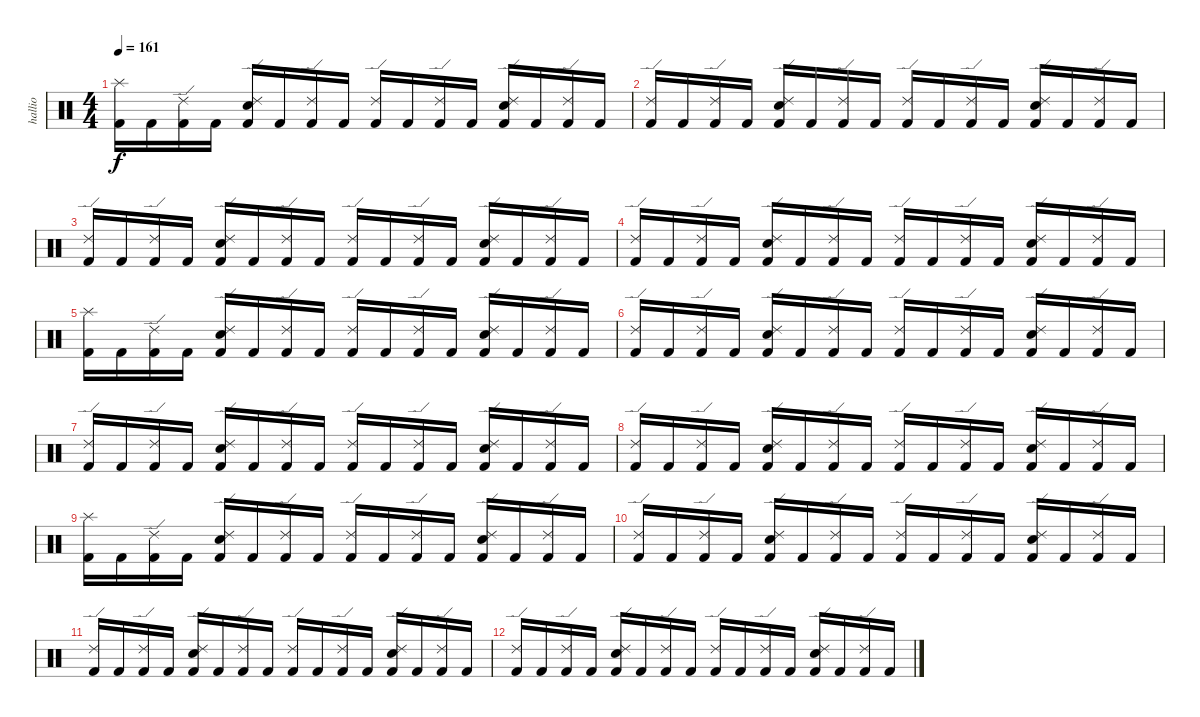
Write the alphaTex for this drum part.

\track ("hallio" "hallio") {instrument percussion}
\staff {score}
\articulation defaults
\ts (4 4)
\tempo 161
\clef neutral
\ks c
("Kick (hit) 2" "Splash (hit)").16{dy f} "Kick (hit) 2".16 ("Kick (hit) 2" "Ride (edge) 2").16 "Kick (hit) 2".16 ("Kick (hit) 2" "Snare (hit) 2" "Ride (edge) 2").16 "Kick (hit) 2".16 ("Kick (hit) 2" "Ride (edge) 2").16 "Kick (hit) 2".16 ("Kick (hit) 2" "Ride (edge) 2").16 "Kick (hit) 2".16 ("Kick (hit) 2" "Ride (edge) 2").16 "Kick (hit) 2".16 ("Kick (hit) 2" "Snare (hit) 2" "Ride (edge) 2").16 "Kick (hit) 2".16 ("Kick (hit) 2" "Ride (edge) 2").16 "Kick (hit) 2".16 |
("Kick (hit) 2" "Ride (edge) 2").16 "Kick (hit) 2".16 ("Kick (hit) 2" "Ride (edge) 2").16 "Kick (hit) 2".16 ("Kick (hit) 2" "Snare (hit) 2" "Ride (edge) 2").16 "Kick (hit) 2".16 ("Kick (hit) 2" "Ride (edge) 2").16 "Kick (hit) 2".16 ("Kick (hit) 2" "Ride (edge) 2").16 "Kick (hit) 2".16 ("Kick (hit) 2" "Ride (edge) 2").16 "Kick (hit) 2".16 ("Kick (hit) 2" "Snare (hit) 2" "Ride (edge) 2").16 "Kick (hit) 2".16 ("Kick (hit) 2" "Ride (edge) 2").16 "Kick (hit) 2".16 |
("Kick (hit) 2" "Ride (edge) 2").16 "Kick (hit) 2".16 ("Kick (hit) 2" "Ride (edge) 2").16 "Kick (hit) 2".16 ("Kick (hit) 2" "Snare (hit) 2" "Ride (edge) 2").16 "Kick (hit) 2".16 ("Kick (hit) 2" "Ride (edge) 2").16 "Kick (hit) 2".16 ("Kick (hit) 2" "Ride (edge) 2").16 "Kick (hit) 2".16 ("Kick (hit) 2" "Ride (edge) 2").16 "Kick (hit) 2".16 ("Kick (hit) 2" "Snare (hit) 2" "Ride (edge) 2").16 "Kick (hit) 2".16 ("Kick (hit) 2" "Ride (edge) 2").16 "Kick (hit) 2".16 |
("Kick (hit) 2" "Ride (edge) 2").16 "Kick (hit) 2".16 ("Kick (hit) 2" "Ride (edge) 2").16 "Kick (hit) 2".16 ("Kick (hit) 2" "Snare (hit) 2" "Ride (edge) 2").16 "Kick (hit) 2".16 ("Kick (hit) 2" "Ride (edge) 2").16 "Kick (hit) 2".16 ("Kick (hit) 2" "Ride (edge) 2").16 "Kick (hit) 2".16 ("Kick (hit) 2" "Ride (edge) 2").16 "Kick (hit) 2".16 ("Kick (hit) 2" "Snare (hit) 2" "Ride (edge) 2").16 "Kick (hit) 2".16 ("Kick (hit) 2" "Ride (edge) 2").16 "Kick (hit) 2".16 |
("Kick (hit) 2" "Splash (hit)").16{volume 12} "Kick (hit) 2".16 ("Kick (hit) 2" "Ride (edge) 2").16 "Kick (hit) 2".16 ("Kick (hit) 2" "Snare (hit) 2" "Ride (edge) 2").16 "Kick (hit) 2".16 ("Kick (hit) 2" "Ride (edge) 2").16 "Kick (hit) 2".16 ("Kick (hit) 2" "Ride (edge) 2").16 "Kick (hit) 2".16 ("Kick (hit) 2" "Ride (edge) 2").16 "Kick (hit) 2".16 ("Kick (hit) 2" "Snare (hit) 2" "Ride (edge) 2").16 "Kick (hit) 2".16 ("Kick (hit) 2" "Ride (edge) 2").16 "Kick (hit) 2".16 |
("Kick (hit) 2" "Ride (edge) 2").16{volume 11} "Kick (hit) 2".16 ("Kick (hit) 2" "Ride (edge) 2").16 "Kick (hit) 2".16 ("Kick (hit) 2" "Snare (hit) 2" "Ride (edge) 2").16 "Kick (hit) 2".16 ("Kick (hit) 2" "Ride (edge) 2").16 "Kick (hit) 2".16 ("Kick (hit) 2" "Ride (edge) 2").16 "Kick (hit) 2".16 ("Kick (hit) 2" "Ride (edge) 2").16 "Kick (hit) 2".16 ("Kick (hit) 2" "Snare (hit) 2" "Ride (edge) 2").16 "Kick (hit) 2".16 ("Kick (hit) 2" "Ride (edge) 2").16 "Kick (hit) 2".16 |
("Kick (hit) 2" "Ride (edge) 2").16{volume 9} "Kick (hit) 2".16 ("Kick (hit) 2" "Ride (edge) 2").16 "Kick (hit) 2".16 ("Kick (hit) 2" "Snare (hit) 2" "Ride (edge) 2").16 "Kick (hit) 2".16 ("Kick (hit) 2" "Ride (edge) 2").16 "Kick (hit) 2".16 ("Kick (hit) 2" "Ride (edge) 2").16 "Kick (hit) 2".16 ("Kick (hit) 2" "Ride (edge) 2").16 "Kick (hit) 2".16 ("Kick (hit) 2" "Snare (hit) 2" "Ride (edge) 2").16 "Kick (hit) 2".16 ("Kick (hit) 2" "Ride (edge) 2").16 "Kick (hit) 2".16 |
("Kick (hit) 2" "Ride (edge) 2").16{volume 7} "Kick (hit) 2".16 ("Kick (hit) 2" "Ride (edge) 2").16 "Kick (hit) 2".16 ("Kick (hit) 2" "Snare (hit) 2" "Ride (edge) 2").16 "Kick (hit) 2".16 ("Kick (hit) 2" "Ride (edge) 2").16 "Kick (hit) 2".16 ("Kick (hit) 2" "Ride (edge) 2").16 "Kick (hit) 2".16 ("Kick (hit) 2" "Ride (edge) 2").16 "Kick (hit) 2".16 ("Kick (hit) 2" "Snare (hit) 2" "Ride (edge) 2").16 "Kick (hit) 2".16 ("Kick (hit) 2" "Ride (edge) 2").16 "Kick (hit) 2".16 |
("Kick (hit) 2" "Splash (hit)").16{volume 5} "Kick (hit) 2".16 ("Kick (hit) 2" "Ride (edge) 2").16 "Kick (hit) 2".16 ("Kick (hit) 2" "Snare (hit) 2" "Ride (edge) 2").16 "Kick (hit) 2".16 ("Kick (hit) 2" "Ride (edge) 2").16 "Kick (hit) 2".16 ("Kick (hit) 2" "Ride (edge) 2").16 "Kick (hit) 2".16 ("Kick (hit) 2" "Ride (edge) 2").16 "Kick (hit) 2".16 ("Kick (hit) 2" "Snare (hit) 2" "Ride (edge) 2").16 "Kick (hit) 2".16 ("Kick (hit) 2" "Ride (edge) 2").16 "Kick (hit) 2".16 |
("Kick (hit) 2" "Ride (edge) 2").16{volume 3} "Kick (hit) 2".16 ("Kick (hit) 2" "Ride (edge) 2").16 "Kick (hit) 2".16 ("Kick (hit) 2" "Snare (hit) 2" "Ride (edge) 2").16 "Kick (hit) 2".16 ("Kick (hit) 2" "Ride (edge) 2").16 "Kick (hit) 2".16 ("Kick (hit) 2" "Ride (edge) 2").16 "Kick (hit) 2".16 ("Kick (hit) 2" "Ride (edge) 2").16 "Kick (hit) 2".16 ("Kick (hit) 2" "Snare (hit) 2" "Ride (edge) 2").16 "Kick (hit) 2".16 ("Kick (hit) 2" "Ride (edge) 2").16 "Kick (hit) 2".16 |
("Kick (hit) 2" "Ride (edge) 2").16{volume 2} "Kick (hit) 2".16 ("Kick (hit) 2" "Ride (edge) 2").16 "Kick (hit) 2".16 ("Kick (hit) 2" "Snare (hit) 2" "Ride (edge) 2").16 "Kick (hit) 2".16 ("Kick (hit) 2" "Ride (edge) 2").16 "Kick (hit) 2".16 ("Kick (hit) 2" "Ride (edge) 2").16 "Kick (hit) 2".16 ("Kick (hit) 2" "Ride (edge) 2").16 "Kick (hit) 2".16 ("Kick (hit) 2" "Snare (hit) 2" "Ride (edge) 2").16 "Kick (hit) 2".16 ("Kick (hit) 2" "Ride (edge) 2").16 "Kick (hit) 2".16 |
("Kick (hit) 2" "Ride (edge) 2").16{volume 2} "Kick (hit) 2".16 ("Kick (hit) 2" "Ride (edge) 2").16 "Kick (hit) 2".16 ("Kick (hit) 2" "Snare (hit) 2" "Ride (edge) 2").16 "Kick (hit) 2".16 ("Kick (hit) 2" "Ride (edge) 2").16 "Kick (hit) 2".16 ("Kick (hit) 2" "Ride (edge) 2").16 "Kick (hit) 2".16 ("Kick (hit) 2" "Ride (edge) 2").16 "Kick (hit) 2".16 ("Kick (hit) 2" "Snare (hit) 2" "Ride (edge) 2").16 "Kick (hit) 2".16 ("Kick (hit) 2" "Ride (edge) 2").16 "Kick (hit) 2".16
